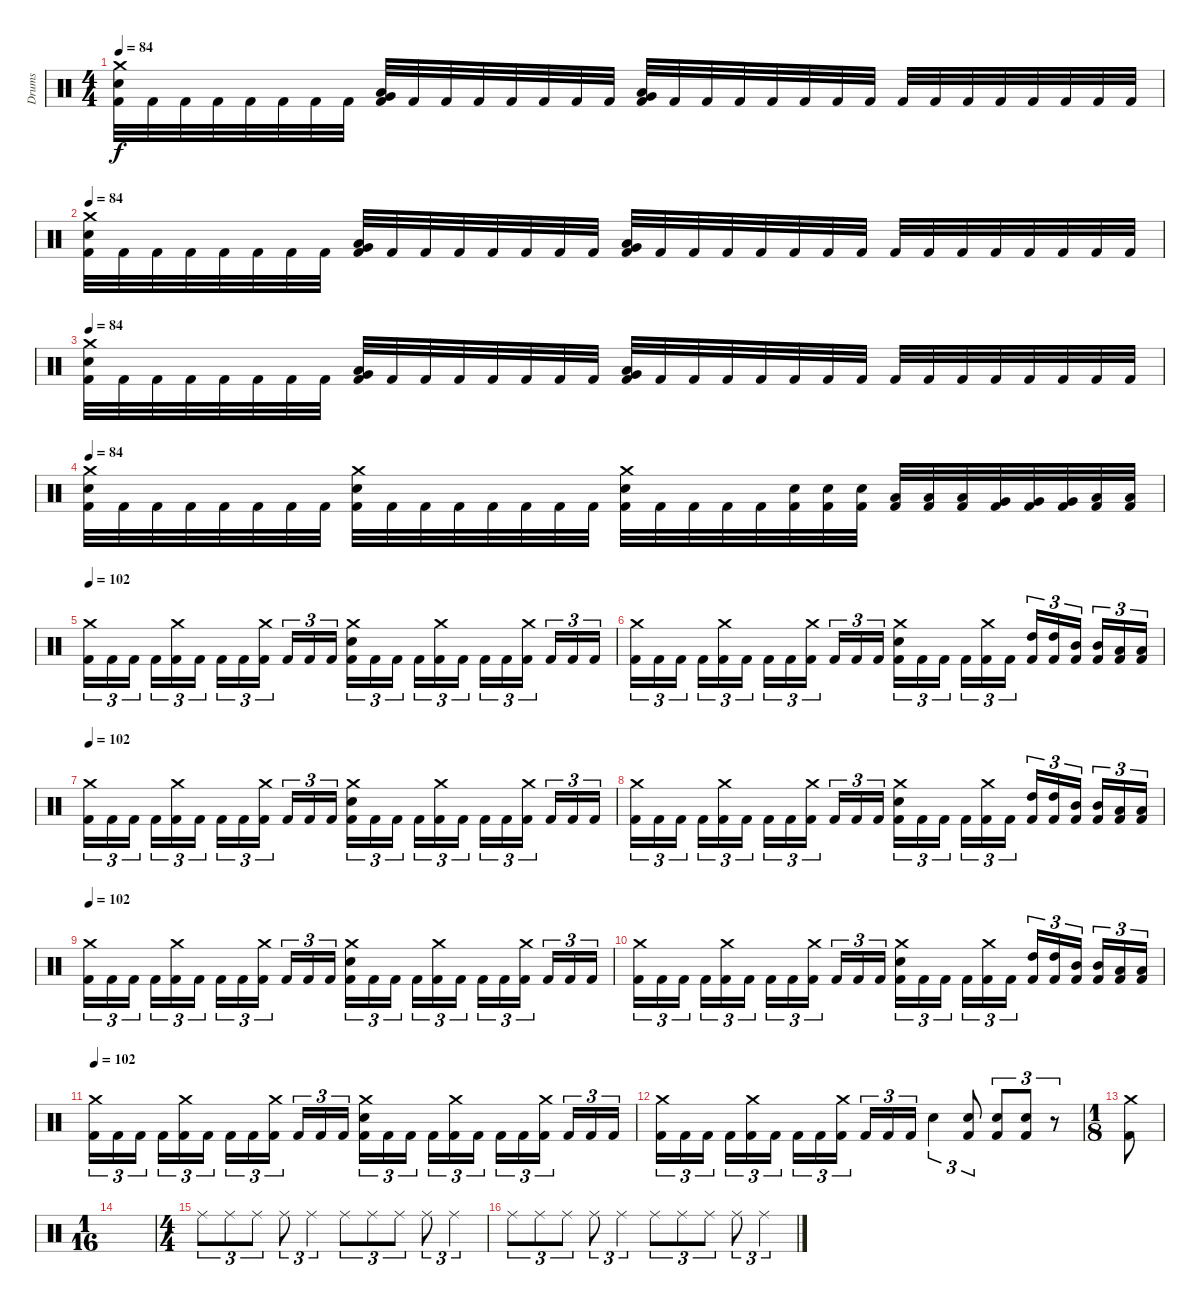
\track ("Drums" "Drums") {instrument percussion}
\staff {score}
\articulation defaults
\ts (4 4)
\tempo 84
\clef neutral
\ks c
("Crash medium (hit)" "Snare (hit) 2" "Kick (hit) 2").32{dy f} "Kick (hit) 2".32 "Kick (hit) 2".32 "Kick (hit) 2".32 "Kick (hit) 2".32 "Kick (hit) 2".32 "Kick (hit) 2".32 "Kick (hit) 2".32 ("Very Low Tom (hit)" "Low Floor Tom (hit)" "Kick (hit) 2").32 "Kick (hit) 2".32 "Kick (hit) 2".32 "Kick (hit) 2".32 "Kick (hit) 2".32 "Kick (hit) 2".32 "Kick (hit) 2".32 "Kick (hit) 2".32 ("Very Low Tom (hit)" "Low Floor Tom (hit)" "Kick (hit) 2").32 "Kick (hit) 2".32 "Kick (hit) 2".32 "Kick (hit) 2".32 "Kick (hit) 2".32 "Kick (hit) 2".32 "Kick (hit) 2".32 "Kick (hit) 2".32 "Kick (hit) 2".32 "Kick (hit) 2".32 "Kick (hit) 2".32 "Kick (hit) 2".32 "Kick (hit) 2".32 "Kick (hit) 2".32 "Kick (hit) 2".32 "Kick (hit) 2".32 |
\tempo 84
("Crash medium (hit)" "Snare (hit) 2" "Kick (hit) 2").32 "Kick (hit) 2".32 "Kick (hit) 2".32 "Kick (hit) 2".32 "Kick (hit) 2".32 "Kick (hit) 2".32 "Kick (hit) 2".32 "Kick (hit) 2".32 ("Very Low Tom (hit)" "Low Floor Tom (hit)" "Kick (hit) 2").32 "Kick (hit) 2".32 "Kick (hit) 2".32 "Kick (hit) 2".32 "Kick (hit) 2".32 "Kick (hit) 2".32 "Kick (hit) 2".32 "Kick (hit) 2".32 ("Very Low Tom (hit)" "Low Floor Tom (hit)" "Kick (hit) 2").32 "Kick (hit) 2".32 "Kick (hit) 2".32 "Kick (hit) 2".32 "Kick (hit) 2".32 "Kick (hit) 2".32 "Kick (hit) 2".32 "Kick (hit) 2".32 "Kick (hit) 2".32 "Kick (hit) 2".32 "Kick (hit) 2".32 "Kick (hit) 2".32 "Kick (hit) 2".32 "Kick (hit) 2".32 "Kick (hit) 2".32 "Kick (hit) 2".32 |
\tempo 84
("Crash medium (hit)" "Snare (hit) 2" "Kick (hit) 2").32 "Kick (hit) 2".32 "Kick (hit) 2".32 "Kick (hit) 2".32 "Kick (hit) 2".32 "Kick (hit) 2".32 "Kick (hit) 2".32 "Kick (hit) 2".32 ("Very Low Tom (hit)" "Low Floor Tom (hit)" "Kick (hit) 2").32 "Kick (hit) 2".32 "Kick (hit) 2".32 "Kick (hit) 2".32 "Kick (hit) 2".32 "Kick (hit) 2".32 "Kick (hit) 2".32 "Kick (hit) 2".32 ("Very Low Tom (hit)" "Low Floor Tom (hit)" "Kick (hit) 2").32 "Kick (hit) 2".32 "Kick (hit) 2".32 "Kick (hit) 2".32 "Kick (hit) 2".32 "Kick (hit) 2".32 "Kick (hit) 2".32 "Kick (hit) 2".32 "Kick (hit) 2".32 "Kick (hit) 2".32 "Kick (hit) 2".32 "Kick (hit) 2".32 "Kick (hit) 2".32 "Kick (hit) 2".32 "Kick (hit) 2".32 "Kick (hit) 2".32 |
\tempo 84
("Crash medium (hit)" "Snare (hit) 2" "Kick (hit) 2").32 "Kick (hit) 2".32 "Kick (hit) 2".32 "Kick (hit) 2".32 "Kick (hit) 2".32 "Kick (hit) 2".32 "Kick (hit) 2".32 "Kick (hit) 2".32 ("Crash medium (hit)" "Snare (hit) 2" "Kick (hit) 2").32 "Kick (hit) 2".32 "Kick (hit) 2".32 "Kick (hit) 2".32 "Kick (hit) 2".32 "Kick (hit) 2".32 "Kick (hit) 2".32 "Kick (hit) 2".32 ("Crash medium (hit)" "Snare (hit) 2" "Kick (hit) 2").32 "Kick (hit) 2".32 "Kick (hit) 2".32 "Kick (hit) 2".32 "Kick (hit) 2".32 ("Snare (hit) 2" "Kick (hit) 2").32 ("Snare (hit) 2" "Kick (hit) 2").32 ("Snare (hit) 2" "Kick (hit) 2").32 ("Low Tom (hit)" "Kick (hit) 2").32 ("Low Tom (hit)" "Kick (hit) 2").32 ("Low Tom (hit)" "Kick (hit) 2").32 ("Very Low Tom (hit)" "Kick (hit) 2").32 ("Very Low Tom (hit)" "Kick (hit) 2").32 ("Very Low Tom (hit)" "Kick (hit) 2").32 ("Low Floor Tom (hit)" "Kick (hit) 2").32 ("Low Floor Tom (hit)" "Kick (hit) 2").32 |
\tempo 102
("Crash medium (hit)" "Kick (hit) 2").16{tu (3 2)} "Kick (hit) 2".16{tu (3 2)} "Kick (hit) 2".16{tu (3 2)} "Kick (hit) 2".16{tu (3 2)} ("Crash medium (hit)" "Kick (hit) 2").16{tu (3 2)} "Kick (hit) 2".16{tu (3 2)} "Kick (hit) 2".16{tu (3 2)} "Kick (hit) 2".16{tu (3 2)} ("Crash medium (hit)" "Kick (hit) 2").16{tu (3 2)} "Kick (hit) 2".16{tu (3 2)} "Kick (hit) 2".16{tu (3 2)} "Kick (hit) 2".16{tu (3 2)} ("Crash medium (hit)" "Snare (hit) 2" "Kick (hit) 2").16{tu (3 2)} "Kick (hit) 2".16{tu (3 2)} "Kick (hit) 2".16{tu (3 2)} "Kick (hit) 2".16{tu (3 2)} ("Crash medium (hit)" "Kick (hit) 2").16{tu (3 2)} "Kick (hit) 2".16{tu (3 2)} "Kick (hit) 2".16{tu (3 2)} "Kick (hit) 2".16{tu (3 2)} ("Crash medium (hit)" "Kick (hit) 2").16{tu (3 2)} "Kick (hit) 2".16{tu (3 2)} "Kick (hit) 2".16{tu (3 2)} "Kick (hit) 2".16{tu (3 2)} |
("Crash medium (hit)" "Kick (hit) 2").16{tu (3 2)} "Kick (hit) 2".16{tu (3 2)} "Kick (hit) 2".16{tu (3 2)} "Kick (hit) 2".16{tu (3 2)} ("Crash medium (hit)" "Kick (hit) 2").16{tu (3 2)} "Kick (hit) 2".16{tu (3 2)} "Kick (hit) 2".16{tu (3 2)} "Kick (hit) 2".16{tu (3 2)} ("Crash medium (hit)" "Kick (hit) 2").16{tu (3 2)} "Kick (hit) 2".16{tu (3 2)} "Kick (hit) 2".16{tu (3 2)} "Kick (hit) 2".16{tu (3 2)} ("Crash medium (hit)" "Snare (hit) 2" "Kick (hit) 2").16{tu (3 2)} "Kick (hit) 2".16{tu (3 2)} "Kick (hit) 2".16{tu (3 2)} "Kick (hit) 2".16{tu (3 2)} ("Crash medium (hit)" "Kick (hit) 2").16{tu (3 2)} "Kick (hit) 2".16{tu (3 2)} ("High Tom (hit)" "Kick (hit) 2").16{tu (3 2)} ("High Tom (hit)" "Kick (hit) 2").16{tu (3 2)} ("Mid Tom (hit)" "Kick (hit) 2").16{tu (3 2)} ("Mid Tom (hit)" "Kick (hit) 2").16{tu (3 2)} ("Low Tom (hit)" "Kick (hit) 2").16{tu (3 2)} ("Low Tom (hit)" "Kick (hit) 2").16{tu (3 2)} |
\tempo 102
("Crash medium (hit)" "Kick (hit) 2").16{tu (3 2)} "Kick (hit) 2".16{tu (3 2)} "Kick (hit) 2".16{tu (3 2)} "Kick (hit) 2".16{tu (3 2)} ("Crash medium (hit)" "Kick (hit) 2").16{tu (3 2)} "Kick (hit) 2".16{tu (3 2)} "Kick (hit) 2".16{tu (3 2)} "Kick (hit) 2".16{tu (3 2)} ("Crash medium (hit)" "Kick (hit) 2").16{tu (3 2)} "Kick (hit) 2".16{tu (3 2)} "Kick (hit) 2".16{tu (3 2)} "Kick (hit) 2".16{tu (3 2)} ("Crash medium (hit)" "Snare (hit) 2" "Kick (hit) 2").16{tu (3 2)} "Kick (hit) 2".16{tu (3 2)} "Kick (hit) 2".16{tu (3 2)} "Kick (hit) 2".16{tu (3 2)} ("Crash medium (hit)" "Kick (hit) 2").16{tu (3 2)} "Kick (hit) 2".16{tu (3 2)} "Kick (hit) 2".16{tu (3 2)} "Kick (hit) 2".16{tu (3 2)} ("Crash medium (hit)" "Kick (hit) 2").16{tu (3 2)} "Kick (hit) 2".16{tu (3 2)} "Kick (hit) 2".16{tu (3 2)} "Kick (hit) 2".16{tu (3 2)} |
("Crash medium (hit)" "Kick (hit) 2").16{tu (3 2)} "Kick (hit) 2".16{tu (3 2)} "Kick (hit) 2".16{tu (3 2)} "Kick (hit) 2".16{tu (3 2)} ("Crash medium (hit)" "Kick (hit) 2").16{tu (3 2)} "Kick (hit) 2".16{tu (3 2)} "Kick (hit) 2".16{tu (3 2)} "Kick (hit) 2".16{tu (3 2)} ("Crash medium (hit)" "Kick (hit) 2").16{tu (3 2)} "Kick (hit) 2".16{tu (3 2)} "Kick (hit) 2".16{tu (3 2)} "Kick (hit) 2".16{tu (3 2)} ("Crash medium (hit)" "Snare (hit) 2" "Kick (hit) 2").16{tu (3 2)} "Kick (hit) 2".16{tu (3 2)} "Kick (hit) 2".16{tu (3 2)} "Kick (hit) 2".16{tu (3 2)} ("Crash medium (hit)" "Kick (hit) 2").16{tu (3 2)} "Kick (hit) 2".16{tu (3 2)} ("High Tom (hit)" "Kick (hit) 2").16{tu (3 2)} ("High Tom (hit)" "Kick (hit) 2").16{tu (3 2)} ("Mid Tom (hit)" "Kick (hit) 2").16{tu (3 2)} ("Mid Tom (hit)" "Kick (hit) 2").16{tu (3 2)} ("Low Tom (hit)" "Kick (hit) 2").16{tu (3 2)} ("Low Tom (hit)" "Kick (hit) 2").16{tu (3 2)} |
\tempo 102
("Crash medium (hit)" "Kick (hit) 2").16{tu (3 2)} "Kick (hit) 2".16{tu (3 2)} "Kick (hit) 2".16{tu (3 2)} "Kick (hit) 2".16{tu (3 2)} ("Crash medium (hit)" "Kick (hit) 2").16{tu (3 2)} "Kick (hit) 2".16{tu (3 2)} "Kick (hit) 2".16{tu (3 2)} "Kick (hit) 2".16{tu (3 2)} ("Crash medium (hit)" "Kick (hit) 2").16{tu (3 2)} "Kick (hit) 2".16{tu (3 2)} "Kick (hit) 2".16{tu (3 2)} "Kick (hit) 2".16{tu (3 2)} ("Crash medium (hit)" "Snare (hit) 2" "Kick (hit) 2").16{tu (3 2)} "Kick (hit) 2".16{tu (3 2)} "Kick (hit) 2".16{tu (3 2)} "Kick (hit) 2".16{tu (3 2)} ("Crash medium (hit)" "Kick (hit) 2").16{tu (3 2)} "Kick (hit) 2".16{tu (3 2)} "Kick (hit) 2".16{tu (3 2)} "Kick (hit) 2".16{tu (3 2)} ("Crash medium (hit)" "Kick (hit) 2").16{tu (3 2)} "Kick (hit) 2".16{tu (3 2)} "Kick (hit) 2".16{tu (3 2)} "Kick (hit) 2".16{tu (3 2)} |
("Crash medium (hit)" "Kick (hit) 2").16{tu (3 2)} "Kick (hit) 2".16{tu (3 2)} "Kick (hit) 2".16{tu (3 2)} "Kick (hit) 2".16{tu (3 2)} ("Crash medium (hit)" "Kick (hit) 2").16{tu (3 2)} "Kick (hit) 2".16{tu (3 2)} "Kick (hit) 2".16{tu (3 2)} "Kick (hit) 2".16{tu (3 2)} ("Crash medium (hit)" "Kick (hit) 2").16{tu (3 2)} "Kick (hit) 2".16{tu (3 2)} "Kick (hit) 2".16{tu (3 2)} "Kick (hit) 2".16{tu (3 2)} ("Crash medium (hit)" "Snare (hit) 2" "Kick (hit) 2").16{tu (3 2)} "Kick (hit) 2".16{tu (3 2)} "Kick (hit) 2".16{tu (3 2)} "Kick (hit) 2".16{tu (3 2)} ("Crash medium (hit)" "Kick (hit) 2").16{tu (3 2)} "Kick (hit) 2".16{tu (3 2)} ("High Tom (hit)" "Kick (hit) 2").16{tu (3 2)} ("High Tom (hit)" "Kick (hit) 2").16{tu (3 2)} ("Mid Tom (hit)" "Kick (hit) 2").16{tu (3 2)} ("Mid Tom (hit)" "Kick (hit) 2").16{tu (3 2)} ("Low Tom (hit)" "Kick (hit) 2").16{tu (3 2)} ("Low Tom (hit)" "Kick (hit) 2").16{tu (3 2)} |
\tempo 102
("Crash medium (hit)" "Kick (hit) 2").16{tu (3 2)} "Kick (hit) 2".16{tu (3 2)} "Kick (hit) 2".16{tu (3 2)} "Kick (hit) 2".16{tu (3 2)} ("Crash medium (hit)" "Kick (hit) 2").16{tu (3 2)} "Kick (hit) 2".16{tu (3 2)} "Kick (hit) 2".16{tu (3 2)} "Kick (hit) 2".16{tu (3 2)} ("Crash medium (hit)" "Kick (hit) 2").16{tu (3 2)} "Kick (hit) 2".16{tu (3 2)} "Kick (hit) 2".16{tu (3 2)} "Kick (hit) 2".16{tu (3 2)} ("Crash medium (hit)" "Snare (hit) 2" "Kick (hit) 2").16{tu (3 2)} "Kick (hit) 2".16{tu (3 2)} "Kick (hit) 2".16{tu (3 2)} "Kick (hit) 2".16{tu (3 2)} ("Crash medium (hit)" "Kick (hit) 2").16{tu (3 2)} "Kick (hit) 2".16{tu (3 2)} "Kick (hit) 2".16{tu (3 2)} "Kick (hit) 2".16{tu (3 2)} ("Crash medium (hit)" "Kick (hit) 2").16{tu (3 2)} "Kick (hit) 2".16{tu (3 2)} "Kick (hit) 2".16{tu (3 2)} "Kick (hit) 2".16{tu (3 2)} |
("Crash medium (hit)" "Kick (hit) 2").16{tu (3 2)} "Kick (hit) 2".16{tu (3 2)} "Kick (hit) 2".16{tu (3 2)} "Kick (hit) 2".16{tu (3 2)} ("Crash medium (hit)" "Kick (hit) 2").16{tu (3 2)} "Kick (hit) 2".16{tu (3 2)} "Kick (hit) 2".16{tu (3 2)} "Kick (hit) 2".16{tu (3 2)} ("Crash medium (hit)" "Kick (hit) 2").16{tu (3 2)} "Kick (hit) 2".16{tu (3 2)} "Kick (hit) 2".16{tu (3 2)} "Kick (hit) 2".16{tu (3 2)} "Snare (hit) 2".4{tu (3 2)} ("Snare (hit) 2" "Kick (hit) 2").8{tu (3 2)} ("Snare (hit) 2" "Kick (hit) 2").8{tu (3 2)} ("Snare (hit) 2" "Kick (hit) 2").8{tu (3 2)} r.8{tu (3 2)} |
\ts (1 8)
("Crash medium (hit)" "Kick (hit) 2").8 |
\ts (1 16)
|
\ts (4 4)
"Ride (middle)".8{tu (3 2)} "Ride (middle)".8{tu (3 2)} "Ride (middle)".8{tu (3 2)} "Ride (middle)".8{tu (3 2)} "Ride (middle)".4{tu (3 2)} "Ride (middle)".8{tu (3 2)} "Ride (middle)".8{tu (3 2)} "Ride (middle)".8{tu (3 2)} "Ride (middle)".8{tu (3 2)} "Ride (middle)".4{tu (3 2)} |
"Ride (middle)".8{tu (3 2)} "Ride (middle)".8{tu (3 2)} "Ride (middle)".8{tu (3 2)} "Ride (middle)".8{tu (3 2)} "Ride (middle)".4{tu (3 2)} "Ride (middle)".8{tu (3 2)} "Ride (middle)".8{tu (3 2)} "Ride (middle)".8{tu (3 2)} "Ride (middle)".8{tu (3 2)} "Ride (middle)".4{tu (3 2)}
